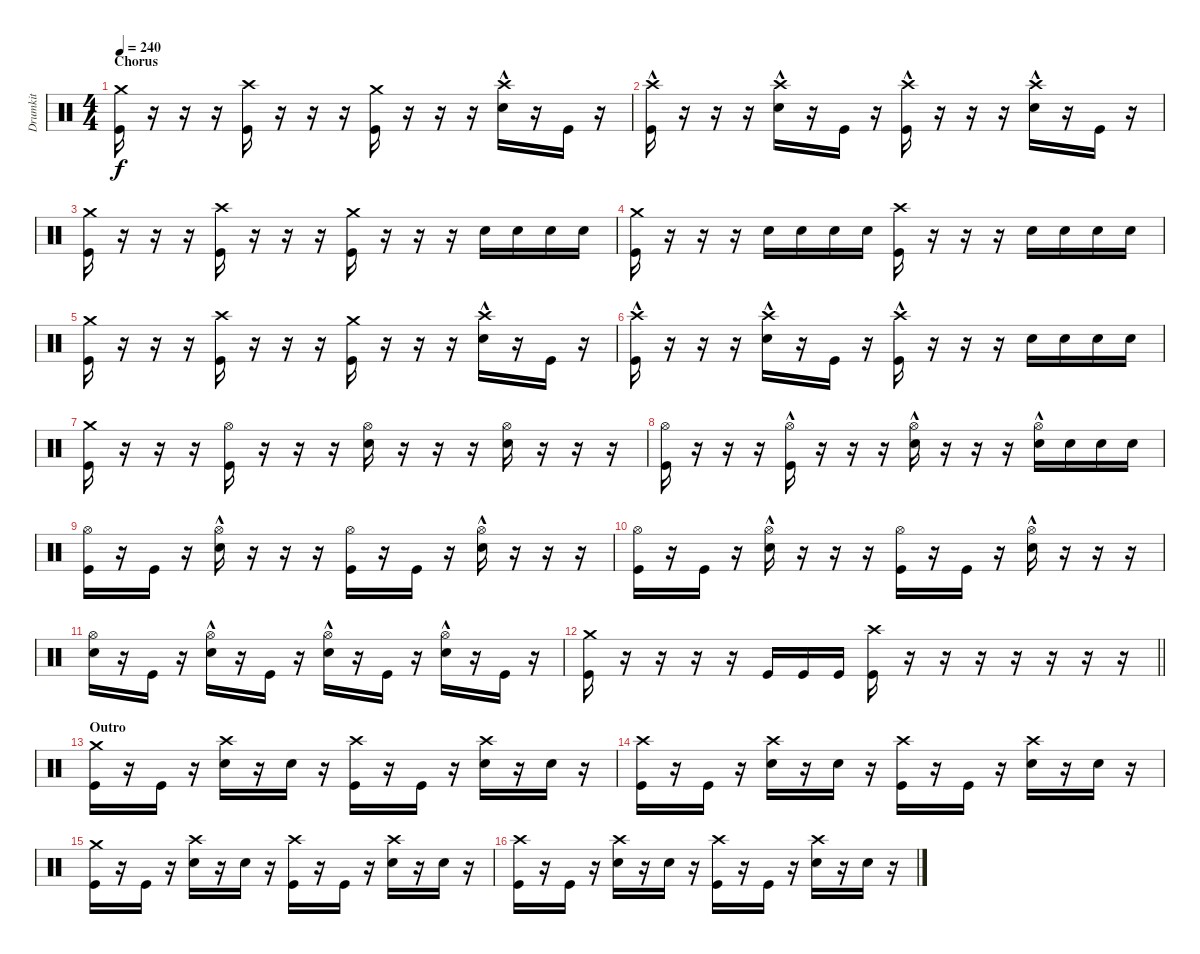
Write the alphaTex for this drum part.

\track ("Drumkit" "Drumkit") {instrument percussion}
\staff {score}
\articulation defaults
\ts (4 4)
\section ("" "Chorus")
\tempo 240
\clef neutral
\ks c
("Crash medium (hit)" "Kick (hit)").16{dy f} r.16 r.16 r.16 ("Crash high (hit)" "Kick (hit)").16 r.16 r.16 r.16 ("Crash medium (hit)" "Kick (hit)").16 r.16 r.16 r.16 ("Crash high (hit)"{hac} "Snare (hit) 2").16 r.16 "Kick (hit)".16 r.16 |
("Crash high (hit)"{hac} "Kick (hit)").16 r.16 r.16 r.16 ("Crash high (hit)"{hac} "Snare (hit) 2").16 r.16 "Kick (hit)".16 r.16 ("Crash high (hit)"{hac} "Kick (hit)").16 r.16 r.16 r.16 ("Crash high (hit)"{hac} "Snare (hit) 2").16 r.16 "Kick (hit)".16 r.16 |
("Crash medium (hit)" "Kick (hit)").16 r.16 r.16 r.16 ("Crash high (hit)" "Kick (hit)").16 r.16 r.16 r.16 ("Crash medium (hit)" "Kick (hit)").16 r.16 r.16 r.16 "Snare (hit) 2".16 "Snare (hit) 2".16 "Snare (hit) 2".16 "Snare (hit) 2".16 |
("Crash medium (hit)" "Kick (hit)").16 r.16 r.16 r.16 "Snare (hit) 2".16 "Snare (hit) 2".16 "Snare (hit) 2".16 "Snare (hit) 2".16 ("Crash high (hit)" "Kick (hit)").16 r.16 r.16 r.16 "Snare (hit) 2".16 "Snare (hit) 2".16 "Snare (hit) 2".16 "Snare (hit) 2".16 |
("Crash medium (hit)" "Kick (hit)").16 r.16 r.16 r.16 ("Crash high (hit)" "Kick (hit)").16 r.16 r.16 r.16 ("Crash medium (hit)" "Kick (hit)").16 r.16 r.16 r.16 ("Crash high (hit)"{hac} "Snare (hit) 2").16 r.16 "Kick (hit)".16 r.16 |
("Crash high (hit)"{hac} "Kick (hit)").16 r.16 r.16 r.16 ("Crash high (hit)"{hac} "Snare (hit) 2").16 r.16 "Kick (hit)".16 r.16 ("Crash high (hit)"{hac} "Kick (hit)").16 r.16 r.16 r.16 "Snare (hit) 2".16 "Snare (hit) 2".16 "Snare (hit) 2".16 "Snare (hit) 2".16 |
("Crash medium (hit)" "Kick (hit)").16 r.16 r.16 r.16 ("Hi-Hat (open)" "Kick (hit)").16 r.16 r.16 r.16 ("Hi-Hat (open)" "Snare (hit) 2").16 r.16 r.16 r.16 ("Hi-Hat (open)" "Snare (hit) 2").16 r.16 r.16 r.16 |
("Hi-Hat (open)" "Kick (hit)").16 r.16 r.16 r.16 ("Hi-Hat (open)"{hac} "Kick (hit)").16 r.16 r.16 r.16 ("Hi-Hat (open)"{hac} "Snare (hit) 2").16 r.16 r.16 r.16 ("Hi-Hat (open)"{hac} "Snare (hit) 2").16 "Snare (hit) 2".16 "Snare (hit) 2".16 "Snare (hit) 2".16 |
("Hi-Hat (open)" "Kick (hit)").16 r.16 "Kick (hit)".16 r.16 ("Hi-Hat (open)"{hac} "Snare (hit) 2").16 r.16 r.16 r.16 ("Hi-Hat (open)" "Kick (hit)").16 r.16 "Kick (hit)".16 r.16 ("Hi-Hat (open)"{hac} "Snare (hit) 2").16 r.16 r.16 r.16 |
("Hi-Hat (open)" "Kick (hit)").16 r.16 "Kick (hit)".16 r.16 ("Hi-Hat (open)"{hac} "Snare (hit) 2").16 r.16 r.16 r.16 ("Hi-Hat (open)" "Kick (hit)").16 r.16 "Kick (hit)".16 r.16 ("Hi-Hat (open)"{hac} "Snare (hit) 2").16 r.16 r.16 r.16 |
("Hi-Hat (open)" "Snare (hit) 2").16 r.16 "Kick (hit)".16 r.16 ("Hi-Hat (open)"{hac} "Snare (hit) 2").16 r.16 "Kick (hit)".16 r.16 ("Hi-Hat (open)"{hac} "Snare (hit) 2").16 r.16 "Kick (hit)".16 r.16 ("Hi-Hat (open)"{hac} "Snare (hit) 2").16 r.16 "Kick (hit)".16 r.16 |
\barLineRight lightlight
("Crash medium (hit)" "Kick (hit)").16 r.16 r.16 r.16 r.16 "Kick (hit)".16 "Kick (hit)".16 "Kick (hit)".16 ("Crash high (hit)" "Kick (hit)").16 r.16 r.16 r.16 r.16 r.16 r.16 r.16 |
\section ("" "Outro")
("Crash medium (hit)" "Kick (hit)").16 r.16 "Kick (hit)".16 r.16 ("Crash high (hit)" "Snare (hit) 2").16 r.16 "Snare (hit) 2".16 r.16 ("Crash high (hit)" "Kick (hit)").16 r.16 "Kick (hit)".16 r.16 ("Crash high (hit)" "Snare (hit) 2").16 r.16 "Snare (hit) 2".16 r.16 |
("Crash high (hit)" "Kick (hit)").16 r.16 "Kick (hit)".16 r.16 ("Crash high (hit)" "Snare (hit) 2").16 r.16 "Snare (hit) 2".16 r.16 ("Crash high (hit)" "Kick (hit)").16 r.16 "Kick (hit)".16 r.16 ("Crash high (hit)" "Snare (hit) 2").16 r.16 "Snare (hit) 2".16 r.16 |
("Crash medium (hit)" "Kick (hit)").16 r.16 "Kick (hit)".16 r.16 ("Crash high (hit)" "Snare (hit) 2").16 r.16 "Snare (hit) 2".16 r.16 ("Crash high (hit)" "Kick (hit)").16 r.16 "Kick (hit)".16 r.16 ("Crash high (hit)" "Snare (hit) 2").16 r.16 "Snare (hit) 2".16 r.16 |
("Crash high (hit)" "Kick (hit)").16 r.16 "Kick (hit)".16 r.16 ("Crash high (hit)" "Snare (hit) 2").16 r.16 "Snare (hit) 2".16 r.16 ("Crash high (hit)" "Kick (hit)").16 r.16 "Kick (hit)".16 r.16 ("Crash high (hit)" "Snare (hit) 2").16 r.16 "Snare (hit) 2".16 r.16
